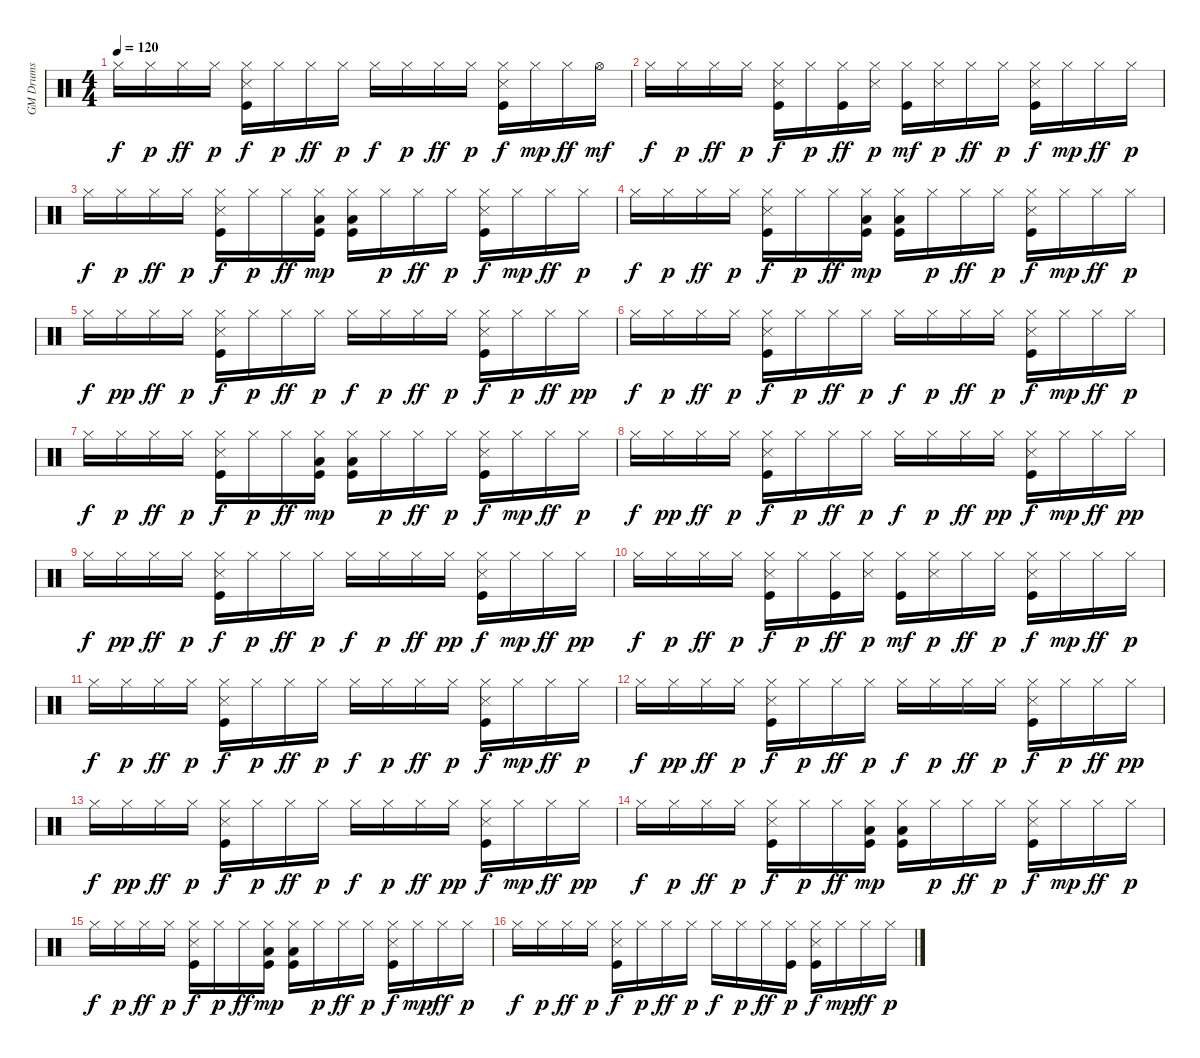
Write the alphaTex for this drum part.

\track ("GM Drums" "GM Drums") {instrument percussion}
\staff {score}
\articulation defaults
\ts (4 4)
\tempo 120
\clef neutral
\ks c "Hi-Hat (closed)".16{dy f} "Hi-Hat (closed)".16{dy p} "Hi-Hat (closed)".16{dy ff} "Hi-Hat (closed)".16{dy p}
("Kick (hit)" "Snare (side stick) 3" "Hi-Hat (closed)").16{dy f} "Hi-Hat (closed)".16{dy p} "Hi-Hat (closed)".16{dy ff} "Hi-Hat (closed)".16{dy p} "Hi-Hat (closed)".16{dy f} "Hi-Hat (closed)".16{dy p} "Hi-Hat (closed)".16{dy ff} "Hi-Hat (closed)".16{dy p} ("Kick (hit)" "Snare (side stick) 3" "Hi-Hat (closed)").16{dy f} "Hi-Hat (closed)".16{dy mp} "Hi-Hat (closed)".16{dy ff} "Hi-Hat (open)".16{dy mf} |
"Hi-Hat (closed)".16{dy f} "Hi-Hat (closed)".16{dy p} "Hi-Hat (closed)".16{dy ff} "Hi-Hat (closed)".16{dy p} ("Kick (hit)" "Snare (side stick) 3" "Hi-Hat (closed)").16{dy f} "Hi-Hat (closed)".16{dy p} ("Kick (hit)" "Hi-Hat (closed)").16{dy ff} ("Snare (side stick) 3" "Hi-Hat (closed)").16{dy p} ("Kick (hit)" "Hi-Hat (closed)").16{dy mf} ("Snare (side stick) 3" "Hi-Hat (closed)").16{dy p} "Hi-Hat (closed)".16{dy ff} "Hi-Hat (closed)".16{dy p} ("Kick (hit)" "Snare (side stick) 3" "Hi-Hat (closed)").16{dy f} "Hi-Hat (closed)".16{dy mp} "Hi-Hat (closed)".16{dy ff} "Hi-Hat (closed)".16{dy p} |
"Hi-Hat (closed)".16{dy f} "Hi-Hat (closed)".16{dy p} "Hi-Hat (closed)".16{dy ff} "Hi-Hat (closed)".16{dy p} ("Kick (hit)" "Snare (side stick) 3" "Hi-Hat (closed)").16{dy f} "Hi-Hat (closed)".16{dy p} "Hi-Hat (closed)".16{dy ff} ("Kick (hit)" "Hi-Hat (closed)" "Low Tom (hit)").16{dy mp} ("Kick (hit)" "Hi-Hat (closed)" "Low Tom (hit)").16 "Hi-Hat (closed)".16{dy p} "Hi-Hat (closed)".16{dy ff} "Hi-Hat (closed)".16{dy p} ("Kick (hit)" "Snare (side stick) 3" "Hi-Hat (closed)").16{dy f} "Hi-Hat (closed)".16{dy mp} "Hi-Hat (closed)".16{dy ff} "Hi-Hat (closed)".16{dy p} |
"Hi-Hat (closed)".16{dy f} "Hi-Hat (closed)".16{dy p} "Hi-Hat (closed)".16{dy ff} "Hi-Hat (closed)".16{dy p} ("Kick (hit)" "Snare (side stick) 3" "Hi-Hat (closed)").16{dy f} "Hi-Hat (closed)".16{dy p} "Hi-Hat (closed)".16{dy ff} ("Kick (hit)" "Hi-Hat (closed)" "Low Tom (hit)").16{dy mp} ("Kick (hit)" "Hi-Hat (closed)" "Low Tom (hit)").16 "Hi-Hat (closed)".16{dy p} "Hi-Hat (closed)".16{dy ff} "Hi-Hat (closed)".16{dy p} ("Kick (hit)" "Snare (side stick) 3" "Hi-Hat (closed)").16{dy f} "Hi-Hat (closed)".16{dy mp} "Hi-Hat (closed)".16{dy ff} "Hi-Hat (closed)".16{dy p} |
"Hi-Hat (closed)".16{dy f} "Hi-Hat (closed)".16{dy pp} "Hi-Hat (closed)".16{dy ff} "Hi-Hat (closed)".16{dy p} ("Kick (hit)" "Snare (side stick) 3" "Hi-Hat (closed)").16{dy f} "Hi-Hat (closed)".16{dy p} "Hi-Hat (closed)".16{dy ff} "Hi-Hat (closed)".16{dy p} "Hi-Hat (closed)".16{dy f} "Hi-Hat (closed)".16{dy p} "Hi-Hat (closed)".16{dy ff} "Hi-Hat (closed)".16{dy p} ("Kick (hit)" "Snare (side stick) 3" "Hi-Hat (closed)").16{dy f} "Hi-Hat (closed)".16{dy p} "Hi-Hat (closed)".16{dy ff} "Hi-Hat (closed)".16{dy pp} |
"Hi-Hat (closed)".16{dy f} "Hi-Hat (closed)".16{dy p} "Hi-Hat (closed)".16{dy ff} "Hi-Hat (closed)".16{dy p} ("Kick (hit)" "Snare (side stick) 3" "Hi-Hat (closed)").16{dy f} "Hi-Hat (closed)".16{dy p} "Hi-Hat (closed)".16{dy ff} "Hi-Hat (closed)".16{dy p} "Hi-Hat (closed)".16{dy f} "Hi-Hat (closed)".16{dy p} "Hi-Hat (closed)".16{dy ff} "Hi-Hat (closed)".16{dy p} ("Kick (hit)" "Snare (side stick) 3" "Hi-Hat (closed)").16{dy f} "Hi-Hat (closed)".16{dy mp} "Hi-Hat (closed)".16{dy ff} "Hi-Hat (closed)".16{dy p} |
"Hi-Hat (closed)".16{dy f} "Hi-Hat (closed)".16{dy p} "Hi-Hat (closed)".16{dy ff} "Hi-Hat (closed)".16{dy p} ("Kick (hit)" "Snare (side stick) 3" "Hi-Hat (closed)").16{dy f} "Hi-Hat (closed)".16{dy p} "Hi-Hat (closed)".16{dy ff} ("Kick (hit)" "Hi-Hat (closed)" "Low Tom (hit)").16{dy mp} ("Kick (hit)" "Hi-Hat (closed)" "Low Tom (hit)").16 "Hi-Hat (closed)".16{dy p} "Hi-Hat (closed)".16{dy ff} "Hi-Hat (closed)".16{dy p} ("Kick (hit)" "Snare (side stick) 3" "Hi-Hat (closed)").16{dy f} "Hi-Hat (closed)".16{dy mp} "Hi-Hat (closed)".16{dy ff} "Hi-Hat (closed)".16{dy p} |
"Hi-Hat (closed)".16{dy f} "Hi-Hat (closed)".16{dy pp} "Hi-Hat (closed)".16{dy ff} "Hi-Hat (closed)".16{dy p} ("Kick (hit)" "Snare (side stick) 3" "Hi-Hat (closed)").16{dy f} "Hi-Hat (closed)".16{dy p} "Hi-Hat (closed)".16{dy ff} "Hi-Hat (closed)".16{dy p} "Hi-Hat (closed)".16{dy f} "Hi-Hat (closed)".16{dy p} "Hi-Hat (closed)".16{dy ff} "Hi-Hat (closed)".16{dy pp} ("Kick (hit)" "Snare (side stick) 3" "Hi-Hat (closed)").16{dy f} "Hi-Hat (closed)".16{dy mp} "Hi-Hat (closed)".16{dy ff} "Hi-Hat (closed)".16{dy pp} |
"Hi-Hat (closed)".16{dy f} "Hi-Hat (closed)".16{dy pp} "Hi-Hat (closed)".16{dy ff} "Hi-Hat (closed)".16{dy p} ("Kick (hit)" "Snare (side stick) 3" "Hi-Hat (closed)").16{dy f} "Hi-Hat (closed)".16{dy p} "Hi-Hat (closed)".16{dy ff} "Hi-Hat (closed)".16{dy p} "Hi-Hat (closed)".16{dy f} "Hi-Hat (closed)".16{dy p} "Hi-Hat (closed)".16{dy ff} "Hi-Hat (closed)".16{dy pp} ("Kick (hit)" "Snare (side stick) 3" "Hi-Hat (closed)").16{dy f} "Hi-Hat (closed)".16{dy mp} "Hi-Hat (closed)".16{dy ff} "Hi-Hat (closed)".16{dy pp} |
"Hi-Hat (closed)".16{dy f} "Hi-Hat (closed)".16{dy p} "Hi-Hat (closed)".16{dy ff} "Hi-Hat (closed)".16{dy p} ("Kick (hit)" "Snare (side stick) 3" "Hi-Hat (closed)").16{dy f} "Hi-Hat (closed)".16{dy p} ("Kick (hit)" "Hi-Hat (closed)").16{dy ff} ("Snare (side stick) 3" "Hi-Hat (closed)").16{dy p} ("Kick (hit)" "Hi-Hat (closed)").16{dy mf} ("Snare (side stick) 3" "Hi-Hat (closed)").16{dy p} "Hi-Hat (closed)".16{dy ff} "Hi-Hat (closed)".16{dy p} ("Kick (hit)" "Snare (side stick) 3" "Hi-Hat (closed)").16{dy f} "Hi-Hat (closed)".16{dy mp} "Hi-Hat (closed)".16{dy ff} "Hi-Hat (closed)".16{dy p} |
"Hi-Hat (closed)".16{dy f} "Hi-Hat (closed)".16{dy p} "Hi-Hat (closed)".16{dy ff} "Hi-Hat (closed)".16{dy p} ("Kick (hit)" "Snare (side stick) 3" "Hi-Hat (closed)").16{dy f} "Hi-Hat (closed)".16{dy p} "Hi-Hat (closed)".16{dy ff} "Hi-Hat (closed)".16{dy p} "Hi-Hat (closed)".16{dy f} "Hi-Hat (closed)".16{dy p} "Hi-Hat (closed)".16{dy ff} "Hi-Hat (closed)".16{dy p} ("Kick (hit)" "Snare (side stick) 3" "Hi-Hat (closed)").16{dy f} "Hi-Hat (closed)".16{dy mp} "Hi-Hat (closed)".16{dy ff} "Hi-Hat (closed)".16{dy p} |
"Hi-Hat (closed)".16{dy f} "Hi-Hat (closed)".16{dy pp} "Hi-Hat (closed)".16{dy ff} "Hi-Hat (closed)".16{dy p} ("Kick (hit)" "Snare (side stick) 3" "Hi-Hat (closed)").16{dy f} "Hi-Hat (closed)".16{dy p} "Hi-Hat (closed)".16{dy ff} "Hi-Hat (closed)".16{dy p} "Hi-Hat (closed)".16{dy f} "Hi-Hat (closed)".16{dy p} "Hi-Hat (closed)".16{dy ff} "Hi-Hat (closed)".16{dy p} ("Kick (hit)" "Snare (side stick) 3" "Hi-Hat (closed)").16{dy f} "Hi-Hat (closed)".16{dy p} "Hi-Hat (closed)".16{dy ff} "Hi-Hat (closed)".16{dy pp} |
"Hi-Hat (closed)".16{dy f} "Hi-Hat (closed)".16{dy pp} "Hi-Hat (closed)".16{dy ff} "Hi-Hat (closed)".16{dy p} ("Kick (hit)" "Snare (side stick) 3" "Hi-Hat (closed)").16{dy f} "Hi-Hat (closed)".16{dy p} "Hi-Hat (closed)".16{dy ff} "Hi-Hat (closed)".16{dy p} "Hi-Hat (closed)".16{dy f} "Hi-Hat (closed)".16{dy p} "Hi-Hat (closed)".16{dy ff} "Hi-Hat (closed)".16{dy pp} ("Kick (hit)" "Snare (side stick) 3" "Hi-Hat (closed)").16{dy f} "Hi-Hat (closed)".16{dy mp} "Hi-Hat (closed)".16{dy ff} "Hi-Hat (closed)".16{dy pp} |
"Hi-Hat (closed)".16{dy f} "Hi-Hat (closed)".16{dy p} "Hi-Hat (closed)".16{dy ff} "Hi-Hat (closed)".16{dy p} ("Kick (hit)" "Snare (side stick) 3" "Hi-Hat (closed)").16{dy f} "Hi-Hat (closed)".16{dy p} "Hi-Hat (closed)".16{dy ff} ("Kick (hit)" "Hi-Hat (closed)" "Low Tom (hit)").16{dy mp} ("Kick (hit)" "Hi-Hat (closed)" "Low Tom (hit)").16 "Hi-Hat (closed)".16{dy p} "Hi-Hat (closed)".16{dy ff} "Hi-Hat (closed)".16{dy p} ("Kick (hit)" "Snare (side stick) 3" "Hi-Hat (closed)").16{dy f} "Hi-Hat (closed)".16{dy mp} "Hi-Hat (closed)".16{dy ff} "Hi-Hat (closed)".16{dy p} |
"Hi-Hat (closed)".16{dy f} "Hi-Hat (closed)".16{dy p} "Hi-Hat (closed)".16{dy ff} "Hi-Hat (closed)".16{dy p} ("Kick (hit)" "Snare (side stick) 3" "Hi-Hat (closed)").16{dy f} "Hi-Hat (closed)".16{dy p} "Hi-Hat (closed)".16{dy ff} ("Kick (hit)" "Hi-Hat (closed)" "Low Tom (hit)").16{dy mp} ("Kick (hit)" "Hi-Hat (closed)" "Low Tom (hit)").16 "Hi-Hat (closed)".16{dy p} "Hi-Hat (closed)".16{dy ff} "Hi-Hat (closed)".16{dy p} ("Kick (hit)" "Snare (side stick) 3" "Hi-Hat (closed)").16{dy f} "Hi-Hat (closed)".16{dy mp} "Hi-Hat (closed)".16{dy ff} "Hi-Hat (closed)".16{dy p} |
"Hi-Hat (closed)".16{dy f} "Hi-Hat (closed)".16{dy p} "Hi-Hat (closed)".16{dy ff} "Hi-Hat (closed)".16{dy p} ("Kick (hit)" "Snare (side stick) 3" "Hi-Hat (closed)").16{dy f} "Hi-Hat (closed)".16{dy p} "Hi-Hat (closed)".16{dy ff} "Hi-Hat (closed)".16{dy p} "Hi-Hat (closed)".16{dy f} "Hi-Hat (closed)".16{dy p} "Hi-Hat (closed)".16{dy ff} ("Kick (hit)" "Hi-Hat (closed)").16{dy p} ("Kick (hit)" "Snare (side stick) 3" "Hi-Hat (closed)").16{dy f} "Hi-Hat (closed)".16{dy mp} "Hi-Hat (closed)".16{dy ff} "Hi-Hat (closed)".16{dy p}
